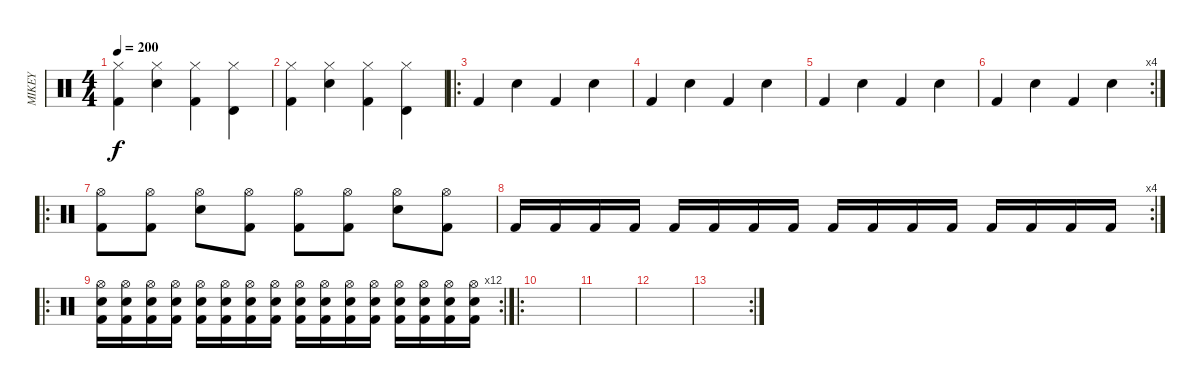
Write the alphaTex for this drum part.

\track ("MIKEY" "MIKEY") {instrument percussion}
\staff {score}
\articulation defaults
\ts (4 4)
\tempo 200
\clef neutral
\ks c
("Hi-Hat (closed)" "Kick (hit) 2").4{dy f} ("Hi-Hat (closed)" "Snare (hit) 2").4 ("Hi-Hat (closed)" "Kick (hit) 2").4 ("Hi-Hat (closed)" "Timbale high (hit)").4 |
("Hi-Hat (closed)" "Kick (hit) 2").4 ("Hi-Hat (closed)" "Snare (hit) 2").4 ("Hi-Hat (closed)" "Kick (hit) 2").4 ("Hi-Hat (closed)" "Timbale high (hit)").4 |
\ro "Kick (hit) 2".4 "Snare (hit) 2".4 "Kick (hit) 2".4 "Snare (hit) 2".4
|
"Kick (hit) 2".4 "Snare (hit) 2".4 "Kick (hit) 2".4 "Snare (hit) 2".4 |
"Kick (hit) 2".4 "Snare (hit) 2".4 "Kick (hit) 2".4 "Snare (hit) 2".4 |
\rc 4 "Kick (hit) 2".4 "Snare (hit) 2".4 "Kick (hit) 2".4 "Snare (hit) 2".4
|
\ro
("Hi-Hat (open)" "Kick (hit) 2").8 ("Hi-Hat (open)" "Kick (hit) 2").8 ("Hi-Hat (open)" "Snare (hit) 2").8 ("Hi-Hat (open)" "Kick (hit) 2").8 ("Hi-Hat (open)" "Kick (hit) 2").8 ("Hi-Hat (open)" "Kick (hit) 2").8 ("Hi-Hat (open)" "Snare (hit) 2").8 ("Hi-Hat (open)" "Kick (hit) 2").8 |
\rc 4 "Kick (hit) 2".16 "Kick (hit) 2".16 "Kick (hit) 2".16 "Kick (hit) 2".16 "Kick (hit) 2".16 "Kick (hit) 2".16 "Kick (hit) 2".16 "Kick (hit) 2".16 "Kick (hit) 2".16 "Kick (hit) 2".16 "Kick (hit) 2".16 "Kick (hit) 2".16 "Kick (hit) 2".16 "Kick (hit) 2".16 "Kick (hit) 2".16 "Kick (hit) 2".16
|
\ro
\rc 12
("Hi-Hat (open)" "Snare (hit) 2" "Kick (hit) 2").16 ("Hi-Hat (open)" "Snare (hit) 2" "Kick (hit) 2").16 ("Hi-Hat (open)" "Snare (hit) 2" "Kick (hit) 2").16 ("Hi-Hat (open)" "Snare (hit) 2" "Kick (hit) 2").16 ("Hi-Hat (open)" "Snare (hit) 2" "Kick (hit) 2").16 ("Hi-Hat (open)" "Snare (hit) 2" "Kick (hit) 2").16 ("Hi-Hat (open)" "Snare (hit) 2" "Kick (hit) 2").16 ("Hi-Hat (open)" "Snare (hit) 2" "Kick (hit) 2").16 ("Hi-Hat (open)" "Snare (hit) 2" "Kick (hit) 2").16 ("Hi-Hat (open)" "Snare (hit) 2" "Kick (hit) 2").16 ("Hi-Hat (open)" "Snare (hit) 2" "Kick (hit) 2").16 ("Hi-Hat (open)" "Snare (hit) 2" "Kick (hit) 2").16 ("Hi-Hat (open)" "Snare (hit) 2" "Kick (hit) 2").16 ("Hi-Hat (open)" "Snare (hit) 2" "Kick (hit) 2").16 ("Hi-Hat (open)" "Snare (hit) 2" "Kick (hit) 2").16 ("Hi-Hat (open)" "Snare (hit) 2" "Kick (hit) 2").16 |
\ro
|
|
|
\rc 2
